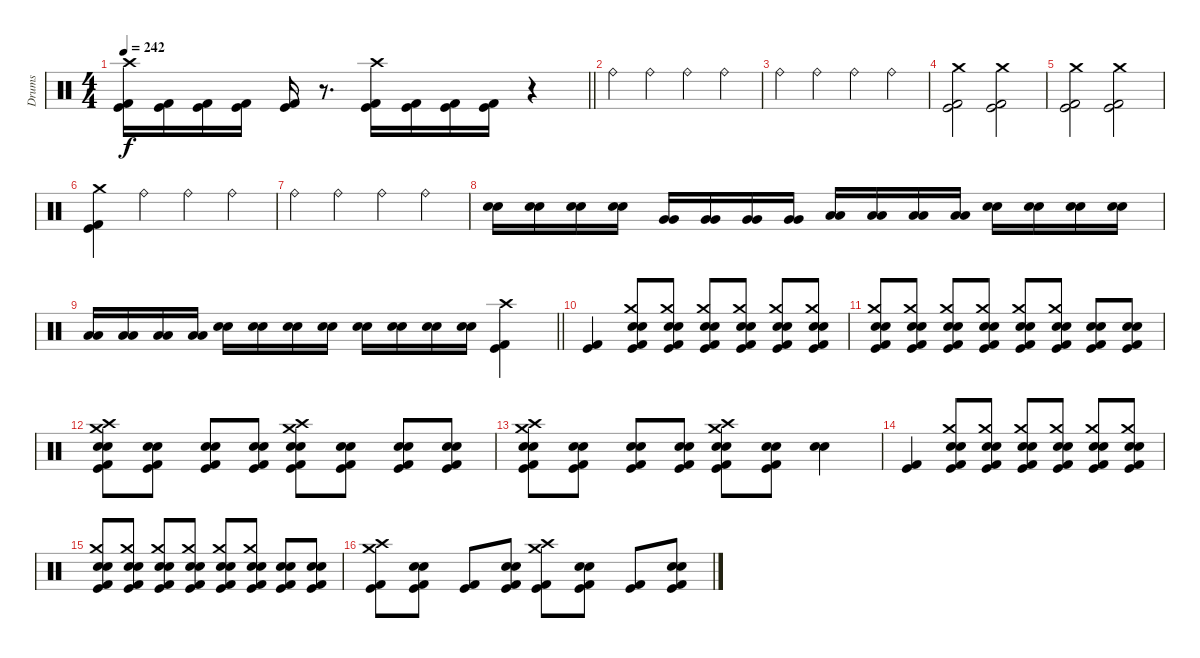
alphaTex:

\track ("Drums" "Drums") {instrument percussion}
\staff {score}
\articulation defaults
\ts (4 4)
\tempo 242
\clef neutral
\barLineRight lightlight
\ks c
("Crash high (hit)" "Kick (hit) 2" "Kick (hit)").16{dy f} ("Kick (hit) 2" "Kick (hit)").16 ("Kick (hit) 2" "Kick (hit)").16 ("Kick (hit) 2" "Kick (hit)").16 ("Kick (hit) 2" "Kick (hit)").16 r.8{d} ("Crash high (hit)" "Kick (hit) 2" "Kick (hit)").16 ("Kick (hit) 2" "Kick (hit)").16 ("Kick (hit) 2" "Kick (hit)").16 ("Kick (hit) 2" "Kick (hit)").16 r.4 |
"Ride (bell)".4{volume 4} "Ride (bell)".4 "Ride (bell)".4 "Ride (bell)".4 |
"Ride (bell)".4 "Ride (bell)".4 "Ride (bell)".4 "Ride (bell)".4 |
("Crash medium (hit)" "Kick (hit) 2" "Kick (hit)").2{volume 13} ("Crash medium (hit)" "Kick (hit) 2" "Kick (hit)").2 |
("Crash medium (hit)" "Kick (hit) 2" "Kick (hit)").2 ("Crash medium (hit)" "Kick (hit) 2" "Kick (hit)").2 |
("Crash medium (hit)" "Kick (hit) 2" "Kick (hit)").4 "Ride (bell)".4{volume 4} "Ride (bell)".4 "Ride (bell)".4 |
"Ride (bell)".4 "Ride (bell)".4 "Ride (bell)".4 "Ride (bell)".4 |
("Electric Snare (hit)" "Electric Snare (hit)").16{volume 13} ("Electric Snare (hit)" "Electric Snare (hit)").16 ("Electric Snare (hit)" "Electric Snare (hit)").16 ("Electric Snare (hit)" "Electric Snare (hit)").16 ("Very Low Tom (hit)" "Very Low Tom (hit)").16 ("Very Low Tom (hit)" "Very Low Tom (hit)").16 ("Very Low Tom (hit)" "Very Low Tom (hit)").16 ("Very Low Tom (hit)" "Very Low Tom (hit)").16 ("Low Floor Tom (hit)" "Low Floor Tom (hit)").16 ("Low Floor Tom (hit)" "Low Floor Tom (hit)").16 ("Low Floor Tom (hit)" "Low Floor Tom (hit)").16 ("Low Floor Tom (hit)" "Low Floor Tom (hit)").16 ("Electric Snare (hit)" "Electric Snare (hit)").16 ("Electric Snare (hit)" "Electric Snare (hit)").16 ("Electric Snare (hit)" "Electric Snare (hit)").16 ("Electric Snare (hit)" "Electric Snare (hit)").16 |
\barLineRight lightlight
("Low Floor Tom (hit)" "Low Floor Tom (hit)").16 ("Low Floor Tom (hit)" "Low Floor Tom (hit)").16 ("Low Floor Tom (hit)" "Low Floor Tom (hit)").16 ("Low Floor Tom (hit)" "Low Floor Tom (hit)").16 ("Electric Snare (hit)" "Electric Snare (hit)").16 ("Electric Snare (hit)" "Electric Snare (hit)").16 ("Electric Snare (hit)" "Electric Snare (hit)").16 ("Electric Snare (hit)" "Electric Snare (hit)").16 ("Electric Snare (hit)" "Electric Snare (hit)").16 ("Electric Snare (hit)" "Electric Snare (hit)").16 ("Electric Snare (hit)" "Electric Snare (hit)").16 ("Electric Snare (hit)" "Electric Snare (hit)").16 ("Crash high (hit)" "Kick (hit) 2" "Kick (hit)").4 |
("Kick (hit) 2" "Kick (hit)").4 ("Crash medium (hit)" "Electric Snare (hit)" "Electric Snare (hit)" "Kick (hit) 2" "Kick (hit)").8 ("Crash medium (hit)" "Electric Snare (hit)" "Electric Snare (hit)" "Kick (hit) 2" "Kick (hit)").8 ("Crash medium (hit)" "Electric Snare (hit)" "Electric Snare (hit)" "Kick (hit) 2" "Kick (hit)").8 ("Crash medium (hit)" "Electric Snare (hit)" "Electric Snare (hit)" "Kick (hit) 2" "Kick (hit)").8 ("Crash medium (hit)" "Electric Snare (hit)" "Electric Snare (hit)" "Kick (hit) 2" "Kick (hit)").8 ("Crash medium (hit)" "Electric Snare (hit)" "Electric Snare (hit)" "Kick (hit) 2" "Kick (hit)").8 |
("Crash medium (hit)" "Electric Snare (hit)" "Electric Snare (hit)" "Kick (hit) 2" "Kick (hit)").8 ("Crash medium (hit)" "Electric Snare (hit)" "Electric Snare (hit)" "Kick (hit) 2" "Kick (hit)").8 ("Crash medium (hit)" "Electric Snare (hit)" "Electric Snare (hit)" "Kick (hit) 2" "Kick (hit)").8 ("Crash medium (hit)" "Electric Snare (hit)" "Electric Snare (hit)" "Kick (hit) 2" "Kick (hit)").8 ("Crash medium (hit)" "Electric Snare (hit)" "Electric Snare (hit)" "Kick (hit) 2" "Kick (hit)").8 ("Crash medium (hit)" "Electric Snare (hit)" "Electric Snare (hit)" "Kick (hit) 2" "Kick (hit)").8 ("Electric Snare (hit)" "Electric Snare (hit)" "Kick (hit) 2" "Kick (hit)").8 ("Electric Snare (hit)" "Electric Snare (hit)" "Kick (hit) 2" "Kick (hit)").8 |
("Crash medium (hit)" "Crash high (hit)" "Electric Snare (hit)" "Electric Snare (hit)" "Kick (hit) 2" "Kick (hit)").8 ("Electric Snare (hit)" "Electric Snare (hit)" "Kick (hit) 2" "Kick (hit)").8 ("Electric Snare (hit)" "Electric Snare (hit)" "Kick (hit) 2" "Kick (hit)").8 ("Electric Snare (hit)" "Electric Snare (hit)" "Kick (hit) 2" "Kick (hit)").8 ("Crash medium (hit)" "Crash high (hit)" "Electric Snare (hit)" "Electric Snare (hit)" "Kick (hit) 2" "Kick (hit)").8 ("Electric Snare (hit)" "Electric Snare (hit)" "Kick (hit) 2" "Kick (hit)").8 ("Electric Snare (hit)" "Electric Snare (hit)" "Kick (hit) 2" "Kick (hit)").8 ("Electric Snare (hit)" "Electric Snare (hit)" "Kick (hit) 2" "Kick (hit)").8 |
("Crash medium (hit)" "Crash high (hit)" "Electric Snare (hit)" "Electric Snare (hit)" "Kick (hit) 2" "Kick (hit)").8 ("Electric Snare (hit)" "Electric Snare (hit)" "Kick (hit) 2" "Kick (hit)").8 ("Electric Snare (hit)" "Electric Snare (hit)" "Kick (hit) 2" "Kick (hit)").8 ("Electric Snare (hit)" "Electric Snare (hit)" "Kick (hit) 2" "Kick (hit)").8 ("Crash medium (hit)" "Crash high (hit)" "Electric Snare (hit)" "Electric Snare (hit)" "Kick (hit) 2" "Kick (hit)").8 ("Electric Snare (hit)" "Electric Snare (hit)" "Kick (hit) 2" "Kick (hit)").8 ("Electric Snare (hit)" "Electric Snare (hit)").4 |
("Kick (hit) 2" "Kick (hit)").4 ("Crash medium (hit)" "Electric Snare (hit)" "Electric Snare (hit)" "Kick (hit) 2" "Kick (hit)").8 ("Crash medium (hit)" "Electric Snare (hit)" "Electric Snare (hit)" "Kick (hit) 2" "Kick (hit)").8 ("Crash medium (hit)" "Electric Snare (hit)" "Electric Snare (hit)" "Kick (hit) 2" "Kick (hit)").8 ("Crash medium (hit)" "Electric Snare (hit)" "Electric Snare (hit)" "Kick (hit) 2" "Kick (hit)").8 ("Crash medium (hit)" "Electric Snare (hit)" "Electric Snare (hit)" "Kick (hit) 2" "Kick (hit)").8 ("Crash medium (hit)" "Electric Snare (hit)" "Electric Snare (hit)" "Kick (hit) 2" "Kick (hit)").8 |
("Crash medium (hit)" "Electric Snare (hit)" "Electric Snare (hit)" "Kick (hit) 2" "Kick (hit)").8 ("Crash medium (hit)" "Electric Snare (hit)" "Electric Snare (hit)" "Kick (hit) 2" "Kick (hit)").8 ("Crash medium (hit)" "Electric Snare (hit)" "Electric Snare (hit)" "Kick (hit) 2" "Kick (hit)").8 ("Crash medium (hit)" "Electric Snare (hit)" "Electric Snare (hit)" "Kick (hit) 2" "Kick (hit)").8 ("Crash medium (hit)" "Electric Snare (hit)" "Electric Snare (hit)" "Kick (hit) 2" "Kick (hit)").8 ("Crash medium (hit)" "Electric Snare (hit)" "Electric Snare (hit)" "Kick (hit) 2" "Kick (hit)").8 ("Electric Snare (hit)" "Electric Snare (hit)" "Kick (hit) 2" "Kick (hit)").8 ("Electric Snare (hit)" "Electric Snare (hit)" "Kick (hit) 2" "Kick (hit)").8 |
("Crash medium (hit)" "Crash high (hit)" "Kick (hit) 2" "Kick (hit)").8 ("Electric Snare (hit)" "Electric Snare (hit)" "Kick (hit) 2" "Kick (hit)").8 ("Kick (hit) 2" "Kick (hit)").8 ("Electric Snare (hit)" "Electric Snare (hit)" "Kick (hit) 2" "Kick (hit)").8 ("Crash medium (hit)" "Crash high (hit)" "Kick (hit) 2" "Kick (hit)").8 ("Electric Snare (hit)" "Electric Snare (hit)" "Kick (hit) 2" "Kick (hit)").8 ("Kick (hit) 2" "Kick (hit)").8 ("Electric Snare (hit)" "Electric Snare (hit)" "Kick (hit) 2" "Kick (hit)").8
